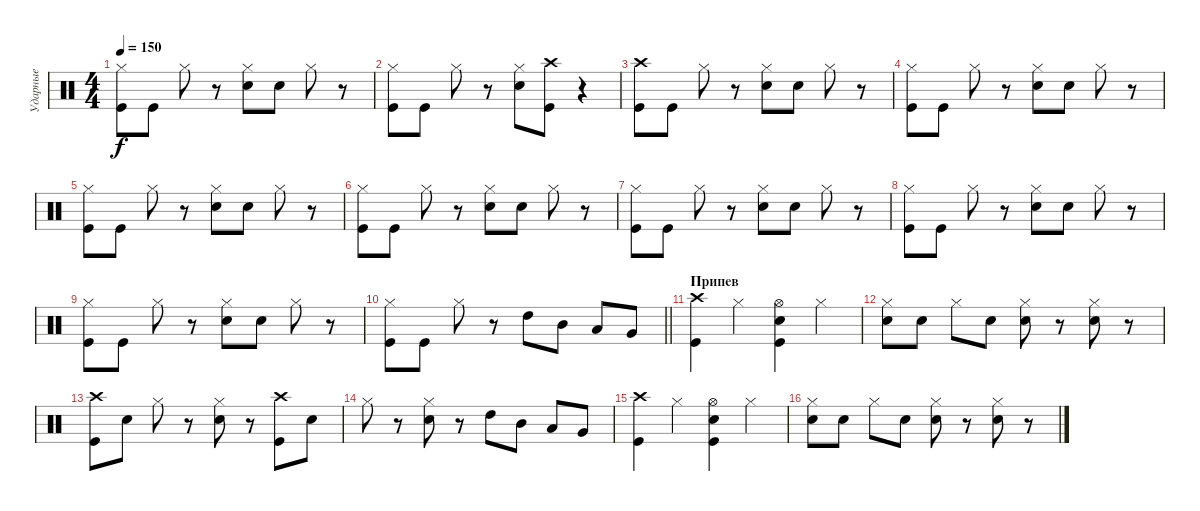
\track ("Ударные" "Ударные") {instrument percussion}
\staff {score}
\articulation defaults
\ts (4 4)
\tempo 150
\clef neutral
\ks c
("Hi-Hat (closed)" "Kick (hit)").8{dy f} "Kick (hit)".8 "Hi-Hat (closed)".8 r.8 ("Hi-Hat (closed)" "Snare (hit) 2").8 "Snare (hit) 2".8 "Hi-Hat (closed)".8 r.8 |
("Hi-Hat (closed)" "Kick (hit)").8 "Kick (hit)".8 "Hi-Hat (closed)".8 r.8 ("Hi-Hat (closed)" "Snare (hit) 2").8 ("Crash high (hit)" "Kick (hit)").8 r.4 |
("Crash high (hit)" "Kick (hit)").8 "Kick (hit)".8 "Hi-Hat (closed)".8 r.8 ("Hi-Hat (closed)" "Snare (hit) 2").8 "Snare (hit) 2".8 "Hi-Hat (closed)".8 r.8 |
("Hi-Hat (closed)" "Kick (hit)").8 "Kick (hit)".8 "Hi-Hat (closed)".8 r.8 ("Hi-Hat (closed)" "Snare (hit) 2").8 "Snare (hit) 2".8 "Hi-Hat (closed)".8 r.8 |
("Hi-Hat (closed)" "Kick (hit)").8 "Kick (hit)".8 "Hi-Hat (closed)".8 r.8 ("Hi-Hat (closed)" "Snare (hit) 2").8 "Snare (hit) 2".8 "Hi-Hat (closed)".8 r.8 |
("Hi-Hat (closed)" "Kick (hit)").8 "Kick (hit)".8 "Hi-Hat (closed)".8 r.8 ("Hi-Hat (closed)" "Snare (hit) 2").8 "Snare (hit) 2".8 "Hi-Hat (closed)".8 r.8 |
("Hi-Hat (closed)" "Kick (hit)").8 "Kick (hit)".8 "Hi-Hat (closed)".8 r.8 ("Hi-Hat (closed)" "Snare (hit) 2").8 "Snare (hit) 2".8 "Hi-Hat (closed)".8 r.8 |
("Hi-Hat (closed)" "Kick (hit)").8 "Kick (hit)".8 "Hi-Hat (closed)".8 r.8 ("Hi-Hat (closed)" "Snare (hit) 2").8 "Snare (hit) 2".8 "Hi-Hat (closed)".8 r.8 |
("Hi-Hat (closed)" "Kick (hit)").8 "Kick (hit)".8 "Hi-Hat (closed)".8 r.8 ("Hi-Hat (closed)" "Snare (hit) 2").8 "Snare (hit) 2".8 "Hi-Hat (closed)".8 r.8 |
\barLineRight lightlight
("Hi-Hat (closed)" "Kick (hit)").8 "Kick (hit)".8 "Hi-Hat (closed)".8 r.8 "High Tom (hit)".8 "Mid Tom (hit)".8 "Low Tom (hit)".8 "Very Low Tom (hit)".8 |
\section ("" "Припев")
("Crash high (hit)" "Kick (hit)").4 "Hi-Hat (closed)".4 ("Hi-Hat (open)" "Snare (hit) 2" "Kick (hit)").4 "Hi-Hat (closed)".4 |
("Hi-Hat (closed)" "Snare (hit) 2").8 "Snare (hit) 2".8 "Hi-Hat (closed)".8 "Snare (hit) 2".8 ("Hi-Hat (closed)" "Snare (hit) 2").8 r.8 ("Hi-Hat (closed)" "Snare (hit) 2").8 r.8 |
("Crash high (hit)" "Kick (hit)").8 "Snare (hit) 2".8 "Hi-Hat (closed)".8 r.8 ("Hi-Hat (closed)" "Snare (hit) 2").8 r.8 ("Crash high (hit)" "Kick (hit)").8 "Snare (hit) 2".8 |
"Hi-Hat (closed)".8 r.8 ("Hi-Hat (closed)" "Snare (hit) 2").8 r.8 "High Tom (hit)".8 "Mid Tom (hit)".8 "Low Tom (hit)".8 "Very Low Tom (hit)".8 |
("Crash high (hit)" "Kick (hit)").4 "Hi-Hat (closed)".4 ("Hi-Hat (open)" "Snare (hit) 2" "Kick (hit)").4 "Hi-Hat (closed)".4 |
("Hi-Hat (closed)" "Snare (hit) 2").8 "Snare (hit) 2".8 "Hi-Hat (closed)".8 "Snare (hit) 2".8 ("Hi-Hat (closed)" "Snare (hit) 2").8 r.8 ("Hi-Hat (closed)" "Snare (hit) 2").8 r.8
